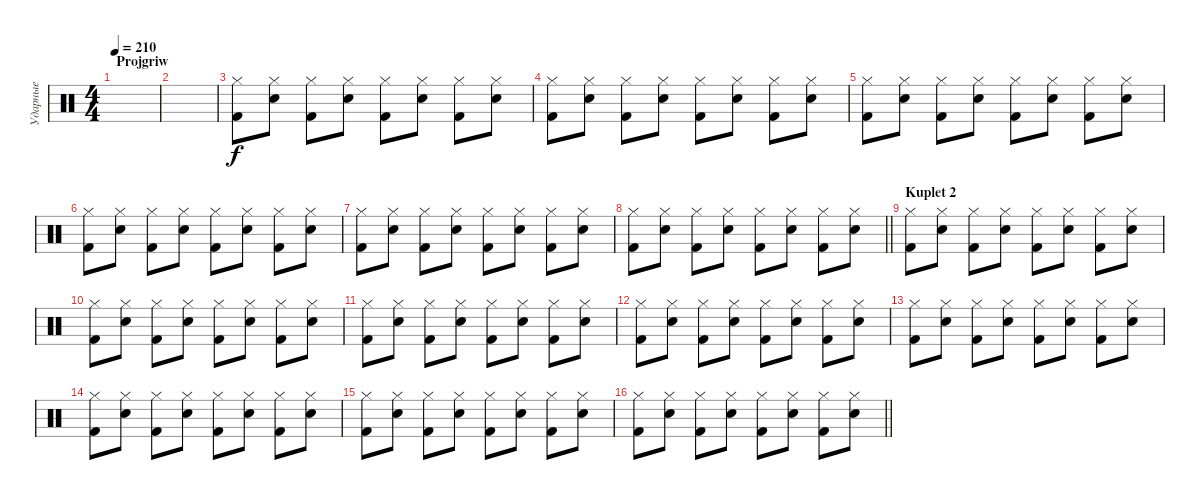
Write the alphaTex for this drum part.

\track ("Ударные" "Ударные") {instrument percussion}
\staff {score}
\articulation defaults
\ts (4 4)
\section ("" "Projgriw")
\tempo 210
\clef neutral
\ks c
|
|
("Hi-Hat (closed)" "Kick (hit) 2").8 ("Hi-Hat (closed)" "Snare (hit) 2").8 ("Hi-Hat (closed)" "Kick (hit) 2").8 ("Hi-Hat (closed)" "Snare (hit) 2").8 ("Hi-Hat (closed)" "Kick (hit) 2").8 ("Hi-Hat (closed)" "Snare (hit) 2").8 ("Hi-Hat (closed)" "Kick (hit) 2").8 ("Hi-Hat (closed)" "Snare (hit) 2").8 |
("Hi-Hat (closed)" "Kick (hit) 2").8 ("Hi-Hat (closed)" "Snare (hit) 2").8 ("Hi-Hat (closed)" "Kick (hit) 2").8 ("Hi-Hat (closed)" "Snare (hit) 2").8 ("Hi-Hat (closed)" "Kick (hit) 2").8 ("Hi-Hat (closed)" "Snare (hit) 2").8 ("Hi-Hat (closed)" "Kick (hit) 2").8 ("Hi-Hat (closed)" "Snare (hit) 2").8 |
("Hi-Hat (closed)" "Kick (hit) 2").8 ("Hi-Hat (closed)" "Snare (hit) 2").8 ("Hi-Hat (closed)" "Kick (hit) 2").8 ("Hi-Hat (closed)" "Snare (hit) 2").8 ("Hi-Hat (closed)" "Kick (hit) 2").8 ("Hi-Hat (closed)" "Snare (hit) 2").8 ("Hi-Hat (closed)" "Kick (hit) 2").8 ("Hi-Hat (closed)" "Snare (hit) 2").8 |
("Hi-Hat (closed)" "Kick (hit) 2").8 ("Hi-Hat (closed)" "Snare (hit) 2").8 ("Hi-Hat (closed)" "Kick (hit) 2").8 ("Hi-Hat (closed)" "Snare (hit) 2").8 ("Hi-Hat (closed)" "Kick (hit) 2").8 ("Hi-Hat (closed)" "Snare (hit) 2").8 ("Hi-Hat (closed)" "Kick (hit) 2").8 ("Hi-Hat (closed)" "Snare (hit) 2").8 |
("Hi-Hat (closed)" "Kick (hit) 2").8 ("Hi-Hat (closed)" "Snare (hit) 2").8 ("Hi-Hat (closed)" "Kick (hit) 2").8 ("Hi-Hat (closed)" "Snare (hit) 2").8 ("Hi-Hat (closed)" "Kick (hit) 2").8 ("Hi-Hat (closed)" "Snare (hit) 2").8 ("Hi-Hat (closed)" "Kick (hit) 2").8 ("Hi-Hat (closed)" "Snare (hit) 2").8 |
\barLineRight lightlight
("Hi-Hat (closed)" "Kick (hit) 2").8 ("Hi-Hat (closed)" "Snare (hit) 2").8 ("Hi-Hat (closed)" "Kick (hit) 2").8 ("Hi-Hat (closed)" "Snare (hit) 2").8 ("Hi-Hat (closed)" "Kick (hit) 2").8 ("Hi-Hat (closed)" "Snare (hit) 2").8 ("Hi-Hat (closed)" "Kick (hit) 2").8 ("Hi-Hat (closed)" "Snare (hit) 2").8 |
\section ("" "Kuplet 2")
("Hi-Hat (closed)" "Kick (hit) 2").8 ("Hi-Hat (closed)" "Snare (hit) 2").8 ("Hi-Hat (closed)" "Kick (hit) 2").8 ("Hi-Hat (closed)" "Snare (hit) 2").8 ("Hi-Hat (closed)" "Kick (hit) 2").8 ("Hi-Hat (closed)" "Snare (hit) 2").8 ("Hi-Hat (closed)" "Kick (hit) 2").8 ("Hi-Hat (closed)" "Snare (hit) 2").8 |
("Hi-Hat (closed)" "Kick (hit) 2").8 ("Hi-Hat (closed)" "Snare (hit) 2").8 ("Hi-Hat (closed)" "Kick (hit) 2").8 ("Hi-Hat (closed)" "Snare (hit) 2").8 ("Hi-Hat (closed)" "Kick (hit) 2").8 ("Hi-Hat (closed)" "Snare (hit) 2").8 ("Hi-Hat (closed)" "Kick (hit) 2").8 ("Hi-Hat (closed)" "Snare (hit) 2").8 |
("Hi-Hat (closed)" "Kick (hit) 2").8 ("Hi-Hat (closed)" "Snare (hit) 2").8 ("Hi-Hat (closed)" "Kick (hit) 2").8 ("Hi-Hat (closed)" "Snare (hit) 2").8 ("Hi-Hat (closed)" "Kick (hit) 2").8 ("Hi-Hat (closed)" "Snare (hit) 2").8 ("Hi-Hat (closed)" "Kick (hit) 2").8 ("Hi-Hat (closed)" "Snare (hit) 2").8 |
("Hi-Hat (closed)" "Kick (hit) 2").8 ("Hi-Hat (closed)" "Snare (hit) 2").8 ("Hi-Hat (closed)" "Kick (hit) 2").8 ("Hi-Hat (closed)" "Snare (hit) 2").8 ("Hi-Hat (closed)" "Kick (hit) 2").8 ("Hi-Hat (closed)" "Snare (hit) 2").8 ("Hi-Hat (closed)" "Kick (hit) 2").8 ("Hi-Hat (closed)" "Snare (hit) 2").8 |
("Hi-Hat (closed)" "Kick (hit) 2").8 ("Hi-Hat (closed)" "Snare (hit) 2").8 ("Hi-Hat (closed)" "Kick (hit) 2").8 ("Hi-Hat (closed)" "Snare (hit) 2").8 ("Hi-Hat (closed)" "Kick (hit) 2").8 ("Hi-Hat (closed)" "Snare (hit) 2").8 ("Hi-Hat (closed)" "Kick (hit) 2").8 ("Hi-Hat (closed)" "Snare (hit) 2").8 |
("Hi-Hat (closed)" "Kick (hit) 2").8 ("Hi-Hat (closed)" "Snare (hit) 2").8 ("Hi-Hat (closed)" "Kick (hit) 2").8 ("Hi-Hat (closed)" "Snare (hit) 2").8 ("Hi-Hat (closed)" "Kick (hit) 2").8 ("Hi-Hat (closed)" "Snare (hit) 2").8 ("Hi-Hat (closed)" "Kick (hit) 2").8 ("Hi-Hat (closed)" "Snare (hit) 2").8 |
("Hi-Hat (closed)" "Kick (hit) 2").8 ("Hi-Hat (closed)" "Snare (hit) 2").8 ("Hi-Hat (closed)" "Kick (hit) 2").8 ("Hi-Hat (closed)" "Snare (hit) 2").8 ("Hi-Hat (closed)" "Kick (hit) 2").8 ("Hi-Hat (closed)" "Snare (hit) 2").8 ("Hi-Hat (closed)" "Kick (hit) 2").8 ("Hi-Hat (closed)" "Snare (hit) 2").8 |
\barLineRight lightlight
("Hi-Hat (closed)" "Kick (hit) 2").8 ("Hi-Hat (closed)" "Snare (hit) 2").8 ("Hi-Hat (closed)" "Kick (hit) 2").8 ("Hi-Hat (closed)" "Snare (hit) 2").8 ("Hi-Hat (closed)" "Kick (hit) 2").8 ("Hi-Hat (closed)" "Snare (hit) 2").8 ("Hi-Hat (closed)" "Kick (hit) 2").8 ("Hi-Hat (closed)" "Snare (hit) 2").8
